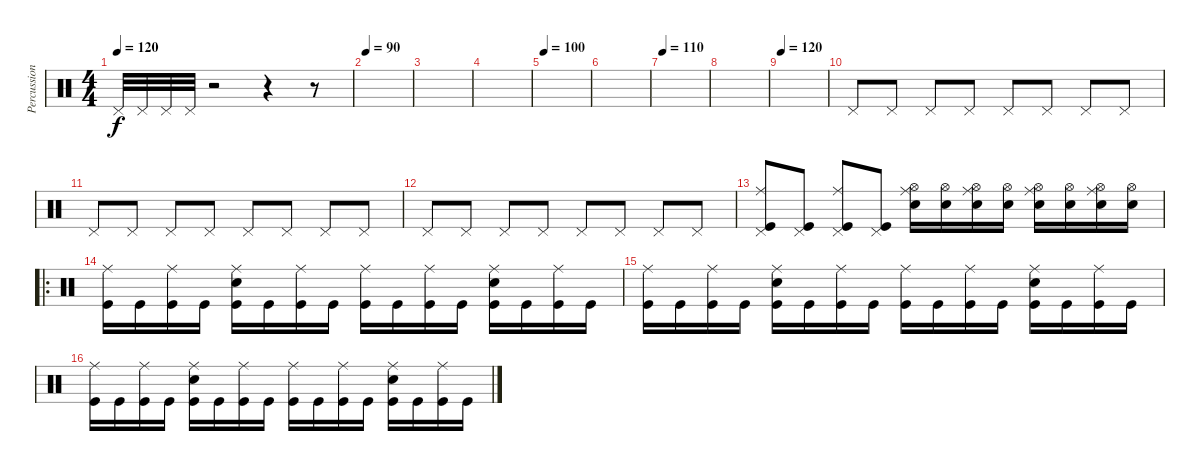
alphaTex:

\track ("Percussions" "Percussion") {instrument percussion}
\staff {score}
\articulation defaults
\ts (4 4)
\tempo 120
\clef neutral
\ks c "Pedal Hi-Hat (hit)".32{dy f} "Pedal Hi-Hat (hit)".32 "Pedal Hi-Hat (hit)".32 "Pedal Hi-Hat (hit)".32
r.2 r.4 r.8 |
\tempo 90
|
|
|
\tempo 100
|
|
\tempo 110
|
|
\tempo 120
|
"Pedal Hi-Hat (hit)".8 "Pedal Hi-Hat (hit)".8 "Pedal Hi-Hat (hit)".8 "Pedal Hi-Hat (hit)".8 "Pedal Hi-Hat (hit)".8 "Pedal Hi-Hat (hit)".8 "Pedal Hi-Hat (hit)".8 "Pedal Hi-Hat (hit)".8 |
"Pedal Hi-Hat (hit)".8 "Pedal Hi-Hat (hit)".8 "Pedal Hi-Hat (hit)".8 "Pedal Hi-Hat (hit)".8 "Pedal Hi-Hat (hit)".8 "Pedal Hi-Hat (hit)".8 "Pedal Hi-Hat (hit)".8 "Pedal Hi-Hat (hit)".8 |
"Pedal Hi-Hat (hit)".8 "Pedal Hi-Hat (hit)".8 "Pedal Hi-Hat (hit)".8 "Pedal Hi-Hat (hit)".8 "Pedal Hi-Hat (hit)".8 "Pedal Hi-Hat (hit)".8 "Pedal Hi-Hat (hit)".8 "Pedal Hi-Hat (hit)".8 |
("Pedal Hi-Hat (hit)" "Ride (middle)" "Kick (hit)").8 ("Pedal Hi-Hat (hit)" "Kick (hit)").8 ("Pedal Hi-Hat (hit)" "Ride (middle)" "Kick (hit)").8 ("Pedal Hi-Hat (hit)" "Kick (hit)").8 ("Hi-Hat (open)" "Ride (middle)" "Snare (hit) 2").16 ("Hi-Hat (open)" "Snare (hit) 2").16 ("Hi-Hat (open)" "Ride (middle)" "Snare (hit) 2").16 ("Hi-Hat (open)" "Snare (hit) 2").16 ("Hi-Hat (open)" "Ride (middle)" "Snare (hit) 2").16 ("Hi-Hat (open)" "Snare (hit) 2").16 ("Hi-Hat (open)" "Ride (middle)" "Snare (hit) 2").16 ("Hi-Hat (open)" "Snare (hit) 2").16 |
\ro
("Kick (hit)" "Ride (middle)").16 "Kick (hit)".16 ("Kick (hit)" "Ride (middle)").16 "Kick (hit)".16 ("Kick (hit)" "Snare (hit) 2" "Ride (middle)").16 "Kick (hit)".16 ("Kick (hit)" "Ride (middle)").16 "Kick (hit)".16 ("Kick (hit)" "Ride (middle)").16 "Kick (hit)".16 ("Kick (hit)" "Ride (middle)").16 "Kick (hit)".16 ("Kick (hit)" "Snare (hit) 2" "Ride (middle)").16 "Kick (hit)".16 ("Kick (hit)" "Ride (middle)").16 "Kick (hit)".16 |
("Kick (hit)" "Ride (middle)").16 "Kick (hit)".16 ("Kick (hit)" "Ride (middle)").16 "Kick (hit)".16 ("Kick (hit)" "Snare (hit) 2" "Ride (middle)").16 "Kick (hit)".16 ("Kick (hit)" "Ride (middle)").16 "Kick (hit)".16 ("Kick (hit)" "Ride (middle)").16 "Kick (hit)".16 ("Kick (hit)" "Ride (middle)").16 "Kick (hit)".16 ("Kick (hit)" "Snare (hit) 2" "Ride (middle)").16 "Kick (hit)".16 ("Kick (hit)" "Ride (middle)").16 "Kick (hit)".16 |
("Kick (hit)" "Ride (middle)").16 "Kick (hit)".16 ("Kick (hit)" "Ride (middle)").16 "Kick (hit)".16 ("Kick (hit)" "Snare (hit) 2" "Ride (middle)").16 "Kick (hit)".16 ("Kick (hit)" "Ride (middle)").16 "Kick (hit)".16 ("Kick (hit)" "Ride (middle)").16 "Kick (hit)".16 ("Kick (hit)" "Ride (middle)").16 "Kick (hit)".16 ("Kick (hit)" "Snare (hit) 2" "Ride (middle)").16 "Kick (hit)".16 ("Kick (hit)" "Ride (middle)").16 "Kick (hit)".16
